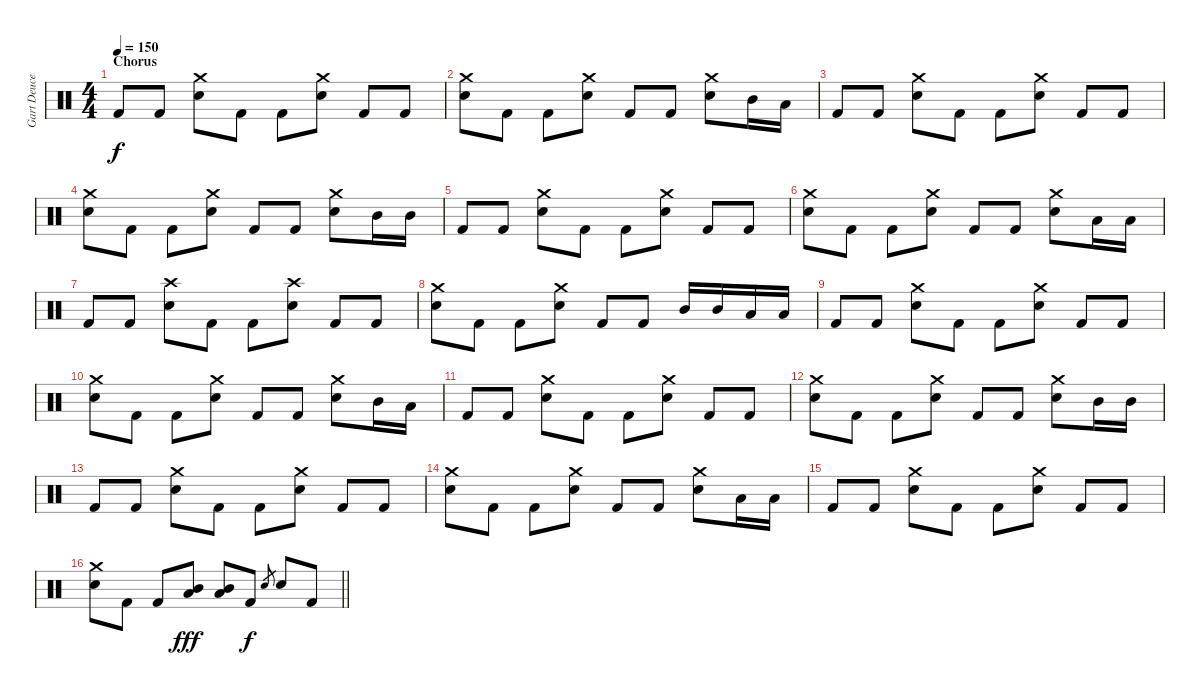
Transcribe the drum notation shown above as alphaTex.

\track ("Gart Deuce" "Gart Deuce") {instrument percussion}
\staff {score}
\articulation defaults
\ts (4 4)
\section ("" "Chorus")
\tempo 150
\clef neutral
\ks c "Kick (hit) 2".8{dy f} "Kick (hit) 2".8
("Crash medium (hit)" "Snare (hit) 2").8 "Kick (hit) 2".8 "Kick (hit) 2".8 ("Crash medium (hit)" "Snare (hit) 2").8 "Kick (hit) 2".8 "Kick (hit) 2".8 |
("Crash medium (hit)" "Snare (hit) 2").8 "Kick (hit) 2".8 "Kick (hit) 2".8 ("Crash medium (hit)" "Snare (hit) 2").8 "Kick (hit) 2".8 "Kick (hit) 2".8 ("Crash medium (hit)" "Snare (hit) 2").8 "Mid Tom (hit)".16 "Low Tom (hit)".16 |
"Kick (hit) 2".8 "Kick (hit) 2".8 ("Crash medium (hit)" "Snare (hit) 2").8 "Kick (hit) 2".8 "Kick (hit) 2".8 ("Crash medium (hit)" "Snare (hit) 2").8 "Kick (hit) 2".8 "Kick (hit) 2".8 |
("Crash medium (hit)" "Snare (hit) 2").8 "Kick (hit) 2".8 "Kick (hit) 2".8 ("Crash medium (hit)" "Snare (hit) 2").8 "Kick (hit) 2".8 "Kick (hit) 2".8 ("Crash medium (hit)" "Snare (hit) 2").8 "Mid Tom (hit)".16 "Mid Tom (hit)".16 |
"Kick (hit) 2".8 "Kick (hit) 2".8 ("Crash medium (hit)" "Snare (hit) 2").8 "Kick (hit) 2".8 "Kick (hit) 2".8 ("Crash medium (hit)" "Snare (hit) 2").8 "Kick (hit) 2".8 "Kick (hit) 2".8 |
("Crash medium (hit)" "Snare (hit) 2").8 "Kick (hit) 2".8 "Kick (hit) 2".8 ("Crash medium (hit)" "Snare (hit) 2").8 "Kick (hit) 2".8 "Kick (hit) 2".8 ("Crash medium (hit)" "Snare (hit) 2").8 "Low Tom (hit)".16 "Low Tom (hit)".16 |
"Kick (hit) 2".8 "Kick (hit) 2".8 ("Crash high (hit)" "Snare (hit) 2").8 "Kick (hit) 2".8 "Kick (hit) 2".8 ("Crash high (hit)" "Snare (hit) 2").8 "Kick (hit) 2".8 "Kick (hit) 2".8 |
("Crash medium (hit)" "Snare (hit) 2").8 "Kick (hit) 2".8 "Kick (hit) 2".8 ("Crash medium (hit)" "Snare (hit) 2").8 "Kick (hit) 2".8 "Kick (hit) 2".8 "Mid Tom (hit)".16 "Mid Tom (hit)".16 "Low Tom (hit)".16 "Low Tom (hit)".16 |
"Kick (hit) 2".8 "Kick (hit) 2".8 ("Crash medium (hit)" "Snare (hit) 2").8 "Kick (hit) 2".8 "Kick (hit) 2".8 ("Crash medium (hit)" "Snare (hit) 2").8 "Kick (hit) 2".8 "Kick (hit) 2".8 |
("Crash medium (hit)" "Snare (hit) 2").8 "Kick (hit) 2".8 "Kick (hit) 2".8 ("Crash medium (hit)" "Snare (hit) 2").8 "Kick (hit) 2".8 "Kick (hit) 2".8 ("Crash medium (hit)" "Snare (hit) 2").8 "Mid Tom (hit)".16 "Low Tom (hit)".16 |
"Kick (hit) 2".8 "Kick (hit) 2".8 ("Crash medium (hit)" "Snare (hit) 2").8 "Kick (hit) 2".8 "Kick (hit) 2".8 ("Crash medium (hit)" "Snare (hit) 2").8 "Kick (hit) 2".8 "Kick (hit) 2".8 |
("Crash medium (hit)" "Snare (hit) 2").8 "Kick (hit) 2".8 "Kick (hit) 2".8 ("Crash medium (hit)" "Snare (hit) 2").8 "Kick (hit) 2".8 "Kick (hit) 2".8 ("Crash medium (hit)" "Snare (hit) 2").8 "Mid Tom (hit)".16 "Mid Tom (hit)".16 |
"Kick (hit) 2".8 "Kick (hit) 2".8 ("Crash medium (hit)" "Snare (hit) 2").8 "Kick (hit) 2".8 "Kick (hit) 2".8 ("Crash medium (hit)" "Snare (hit) 2").8 "Kick (hit) 2".8 "Kick (hit) 2".8 |
("Crash medium (hit)" "Snare (hit) 2").8 "Kick (hit) 2".8 "Kick (hit) 2".8 ("Crash medium (hit)" "Snare (hit) 2").8 "Kick (hit) 2".8 "Kick (hit) 2".8 ("Crash medium (hit)" "Snare (hit) 2").8 "Low Tom (hit)".16 "Low Tom (hit)".16 |
"Kick (hit) 2".8 "Kick (hit) 2".8 ("Crash medium (hit)" "Snare (hit) 2").8 "Kick (hit) 2".8 "Kick (hit) 2".8 ("Crash medium (hit)" "Snare (hit) 2").8 "Kick (hit) 2".8 "Kick (hit) 2".8 |
\barLineRight lightlight
("Crash medium (hit)" "Snare (hit) 2").8 "Kick (hit) 2".8 "Kick (hit) 2".8 ("Mid Tom (hit)" "Low Tom (hit)").8{dy fff} ("Mid Tom (hit)" "Low Tom (hit)").8 "Kick (hit) 2".8{dy f} "Snare (hit) 2".8{gr} "Snare (hit) 2".8 "Kick (hit) 2".8
